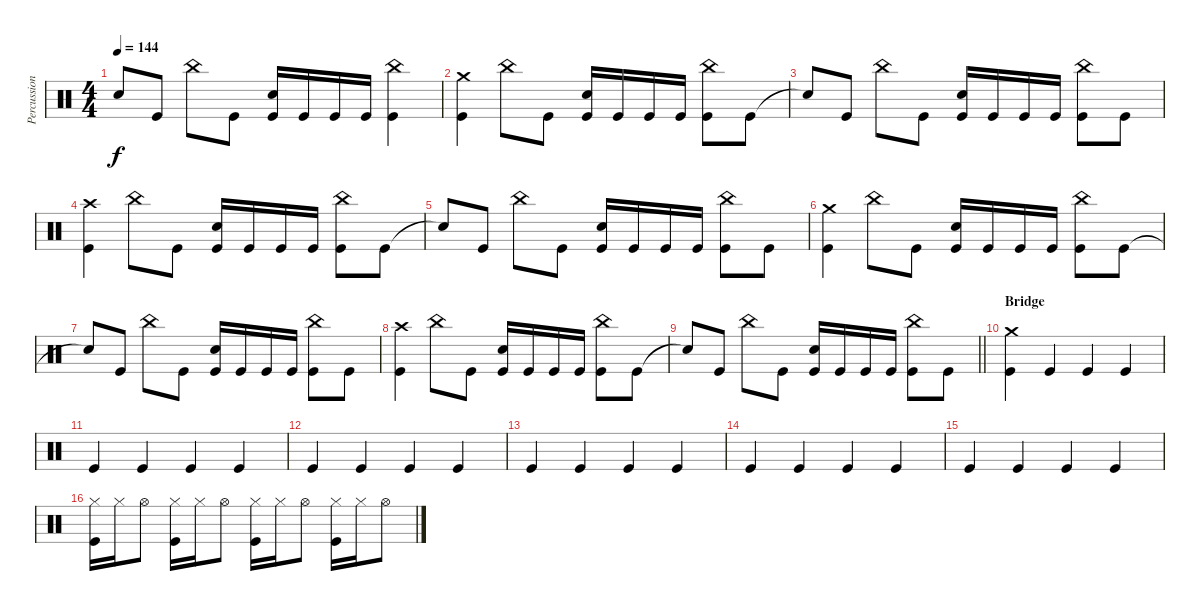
\track ("Percussion" "Percussion") {instrument percussion}
\staff {score}
\articulation defaults
\ts (4 4)
\tempo 144
\clef neutral
\ks c "Snare (hit)"{t}.8{dy f} "Kick (hit)".8 "China (hit)".8 "Kick (hit)".8
("Electric Snare (hit)" "Kick (hit)").16 "Kick (hit)".16 "Kick (hit)".16 "Kick (hit)".16 ("China (hit)" "Kick (hit)").4 |
("Crash medium (hit)" "Kick (hit)").4 "China (hit)".8 "Kick (hit)".8 ("Electric Snare (hit)" "Kick (hit)").16 "Kick (hit)".16 "Kick (hit)".16 "Kick (hit)".16 ("China (hit)" "Kick (hit)").8 "Kick (hit)".8 |
"Snare (hit)"{t}.8 "Kick (hit)".8 "China (hit)".8 "Kick (hit)".8 ("Electric Snare (hit)" "Kick (hit)").16 "Kick (hit)".16 "Kick (hit)".16 "Kick (hit)".16 ("China (hit)" "Kick (hit)").8 "Kick (hit)".8 |
("Crash high (hit)" "Kick (hit)").4 "China (hit)".8 "Kick (hit)".8 ("Electric Snare (hit)" "Kick (hit)").16 "Kick (hit)".16 "Kick (hit)".16 "Kick (hit)".16 ("China (hit)" "Kick (hit)").8 "Kick (hit)".8 |
"Snare (hit)"{t}.8 "Kick (hit)".8 "China (hit)".8 "Kick (hit)".8 ("Electric Snare (hit)" "Kick (hit)").16 "Kick (hit)".16 "Kick (hit)".16 "Kick (hit)".16 ("China (hit)" "Kick (hit)").8 "Kick (hit)".8 |
("Crash medium (hit)" "Kick (hit)").4 "China (hit)".8 "Kick (hit)".8 ("Electric Snare (hit)" "Kick (hit)").16 "Kick (hit)".16 "Kick (hit)".16 "Kick (hit)".16 ("China (hit)" "Kick (hit)").8 "Kick (hit)".8 |
"Snare (hit)"{t}.8 "Kick (hit)".8 "China (hit)".8 "Kick (hit)".8 ("Electric Snare (hit)" "Kick (hit)").16 "Kick (hit)".16 "Kick (hit)".16 "Kick (hit)".16 ("China (hit)" "Kick (hit)").8 "Kick (hit)".8 |
("Crash high (hit)" "Kick (hit)").4 "China (hit)".8 "Kick (hit)".8 ("Electric Snare (hit)" "Kick (hit)").16 "Kick (hit)".16 "Kick (hit)".16 "Kick (hit)".16 ("China (hit)" "Kick (hit)").8 "Kick (hit)".8 |
\barLineRight lightlight "Snare (hit)"{t}.8 "Kick (hit)".8 "China (hit)".8 "Kick (hit)".8
("Electric Snare (hit)" "Kick (hit)").16 "Kick (hit)".16 "Kick (hit)".16 "Kick (hit)".16 ("China (hit)" "Kick (hit)").8 "Kick (hit)".8 |
\section ("" "Bridge")
("Crash medium (hit)" "Kick (hit)").4 "Kick (hit)".4 "Kick (hit)".4 "Kick (hit)".4 |
"Kick (hit)".4 "Kick (hit)".4 "Kick (hit)".4 "Kick (hit)".4 |
"Kick (hit)".4 "Kick (hit)".4 "Kick (hit)".4 "Kick (hit)".4 |
"Kick (hit)".4 "Kick (hit)".4 "Kick (hit)".4 "Kick (hit)".4 |
"Kick (hit)".4 "Kick (hit)".4 "Kick (hit)".4 "Kick (hit)".4 |
"Kick (hit)".4 "Kick (hit)".4 "Kick (hit)".4 "Kick (hit)".4 |
("Hi-Hat (closed)" "Kick (hit)").16 "Hi-Hat (closed)".16 "Hi-Hat (open)".8 ("Hi-Hat (closed)" "Kick (hit)").16 "Hi-Hat (closed)".16 "Hi-Hat (open)".8 ("Hi-Hat (closed)" "Kick (hit)").16 "Hi-Hat (closed)".16 "Hi-Hat (open)".8 ("Hi-Hat (closed)" "Kick (hit)").16 "Hi-Hat (closed)".16 "Hi-Hat (open)".8
